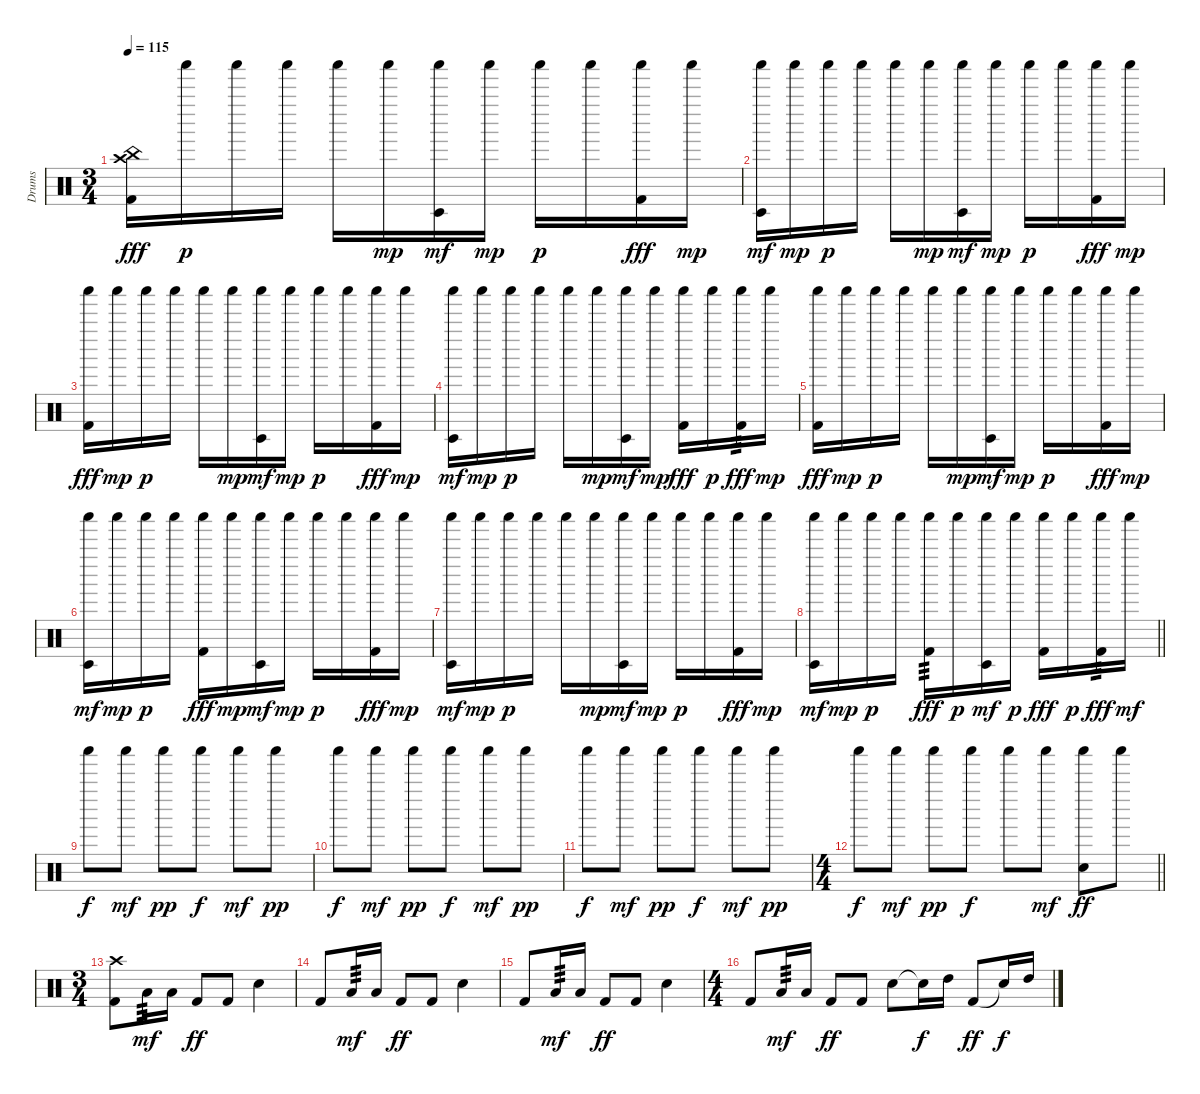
\track ("Drums" "Drums") {instrument percussion}
\staff {score}
\articulation defaults
\ts (3 4)
\section ("" "")
\tempo 115
\clef neutral
\ks c
("China (hit)" "Crash high (hit)" "Kick (hit) 2").16{dy fff} "Shaker (hit)".16{dy p} "Shaker (hit)".16 "Shaker (hit)".16 "Shaker (hit)".16 "Shaker (hit)".16{dy mp} ("Shaker (hit)" "Timbale low (hit)").16{dy mf} "Shaker (hit)".16{dy mp} "Shaker (hit)".16{dy p} "Shaker (hit)".16 ("Shaker (hit)" "Kick (hit) 2").16{dy fff} "Shaker (hit)".16{dy mp} |
("Shaker (hit)" "Timbale low (hit)").16{dy mf} "Shaker (hit)".16{dy mp} "Shaker (hit)".16{dy p} "Shaker (hit)".16 "Shaker (hit)".16 "Shaker (hit)".16{dy mp} ("Shaker (hit)" "Timbale low (hit)").16{dy mf} "Shaker (hit)".16{dy mp} "Shaker (hit)".16{dy p} "Shaker (hit)".16 ("Shaker (hit)" "Kick (hit) 2").16{dy fff} "Shaker (hit)".16{dy mp} |
("Shaker (hit)" "Kick (hit) 2").16{dy fff} "Shaker (hit)".16{dy mp} "Shaker (hit)".16{dy p} "Shaker (hit)".16 "Shaker (hit)".16 "Shaker (hit)".16{dy mp} ("Shaker (hit)" "Timbale low (hit)").16{dy mf} "Shaker (hit)".16{dy mp} "Shaker (hit)".16{dy p} "Shaker (hit)".16 ("Shaker (hit)" "Kick (hit) 2").16{dy fff} "Shaker (hit)".16{dy mp} |
("Shaker (hit)" "Timbale low (hit)").16{dy mf} "Shaker (hit)".16{dy mp} "Shaker (hit)".16{dy p} "Shaker (hit)".16 "Shaker (hit)".16 "Shaker (hit)".16{dy mp} ("Shaker (hit)" "Timbale low (hit)").16{dy mf} "Shaker (hit)".16{dy mp} ("Shaker (hit)" "Kick (hit) 2").16{dy fff} "Shaker (hit)".16{dy p} ("Shaker (hit)" "Kick (hit) 2").16{tp 3 dy fff} "Shaker (hit)".16{dy mp} |
("Shaker (hit)" "Kick (hit) 2").16{dy fff} "Shaker (hit)".16{dy mp} "Shaker (hit)".16{dy p} "Shaker (hit)".16 "Shaker (hit)".16 "Shaker (hit)".16{dy mp} ("Shaker (hit)" "Timbale low (hit)").16{dy mf} "Shaker (hit)".16{dy mp} "Shaker (hit)".16{dy p} "Shaker (hit)".16 ("Shaker (hit)" "Kick (hit) 2").16{dy fff} "Shaker (hit)".16{dy mp} |
("Shaker (hit)" "Timbale low (hit)").16{dy mf} "Shaker (hit)".16{dy mp} "Shaker (hit)".16{dy p} "Shaker (hit)".16 ("Shaker (hit)" "Kick (hit) 2").16{dy fff} "Shaker (hit)".16{dy mp} ("Shaker (hit)" "Timbale low (hit)").16{dy mf} "Shaker (hit)".16{dy mp} "Shaker (hit)".16{dy p} "Shaker (hit)".16 ("Shaker (hit)" "Kick (hit) 2").16{dy fff} "Shaker (hit)".16{dy mp} |
("Shaker (hit)" "Timbale low (hit)").16{dy mf} "Shaker (hit)".16{dy mp} "Shaker (hit)".16{dy p} "Shaker (hit)".16 "Shaker (hit)".16 "Shaker (hit)".16{dy mp} ("Shaker (hit)" "Timbale low (hit)").16{dy mf} "Shaker (hit)".16{dy mp} "Shaker (hit)".16{dy p} "Shaker (hit)".16 ("Shaker (hit)" "Kick (hit) 2").16{dy fff} "Shaker (hit)".16{dy mp} |
\barLineRight lightlight
("Shaker (hit)" "Timbale low (hit)").16{dy mf} "Shaker (hit)".16{dy mp} "Shaker (hit)".16{dy p} "Shaker (hit)".16 ("Shaker (hit)" "Kick (hit) 2").16{tp 3 dy fff} "Shaker (hit)".16{dy p} ("Shaker (hit)" "Timbale low (hit)").16{dy mf} "Shaker (hit)".16{dy p} ("Shaker (hit)" "Kick (hit) 2").16{dy fff} "Shaker (hit)".16{dy p} ("Shaker (hit)" "Kick (hit) 2").16{tp 3 dy fff} "Shaker (hit)".16{dy mf} |
\section ("" "")
"Shaker (hit)".8{dy f} "Shaker (hit)".8{dy mf} "Shaker (hit)".8{dy pp} "Shaker (hit)".8{dy f} "Shaker (hit)".8{dy mf} "Shaker (hit)".8{dy pp} |
"Shaker (hit)".8{dy f} "Shaker (hit)".8{dy mf} "Shaker (hit)".8{dy pp} "Shaker (hit)".8{dy f} "Shaker (hit)".8{dy mf} "Shaker (hit)".8{dy pp} |
"Shaker (hit)".8{dy f} "Shaker (hit)".8{dy mf} "Shaker (hit)".8{dy pp} "Shaker (hit)".8{dy f} "Shaker (hit)".8{dy mf} "Shaker (hit)".8{dy pp} |
\ts (4 4)
\barLineRight lightlight "Shaker (hit)".8{dy f} "Shaker (hit)".8{dy mf} "Shaker (hit)".8{dy pp} "Shaker (hit)".8{dy f} "Shaker (hit)".8 "Shaker (hit)".8{dy mf}
("Shaker (hit)" "Snare (hit) 2").8{dy ff} "Shaker (hit)".8 |
\ts (3 4)
\section ("" "")
("Crash high (hit)" "Kick (hit) 2").8 "Low Tom (hit)".16{tp 3 dy mf} "Low Tom (hit)".16 "Kick (hit) 2".8{dy ff} "Kick (hit) 2".8 "Snare (hit) 2".4 |
"Kick (hit) 2".8 "Low Tom (hit)".16{tp 3 dy mf} "Low Tom (hit)".16 "Kick (hit) 2".8{dy ff} "Kick (hit) 2".8 "Snare (hit) 2".4 |
"Kick (hit) 2".8 "Low Tom (hit)".16{tp 3 dy mf} "Low Tom (hit)".16 "Kick (hit) 2".8{dy ff} "Kick (hit) 2".8 "Snare (hit) 2".4 |
\ts (4 4)
"Kick (hit) 2".8 "Low Tom (hit)".16{tp 3 dy mf} "Low Tom (hit)".16 "Kick (hit) 2".8{dy ff} "Kick (hit) 2".8 "Snare (hit) 2".8 "Snare (hit)"{t}.16{dy f} "High Tom (hit)".16 "Kick (hit) 2".8{dy ff} "Snare (hit)"{t}.16{dy f} "High Tom (hit)".16
